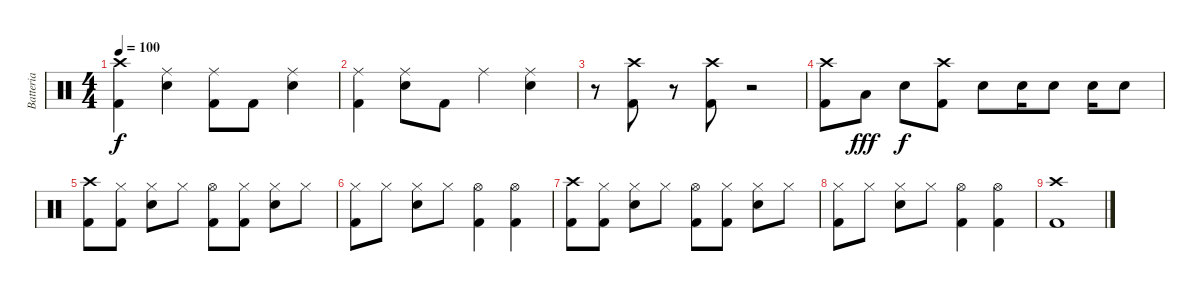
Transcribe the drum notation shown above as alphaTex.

\track ("Batteria" "Batteria") {instrument percussion}
\staff {score}
\articulation defaults
\ts (4 4)
\tempo 100
\clef neutral
\ks c
("Crash high (hit)" "Kick (hit) 2").4{dy f} ("Ride (middle)" "Electric Snare (hit)").4 ("Ride (middle)" "Kick (hit) 2").8 "Kick (hit) 2".8 ("Ride (middle)" "Electric Snare (hit)").4 |
("Ride (middle)" "Kick (hit) 2").4 ("Ride (middle)" "Electric Snare (hit)").8 "Kick (hit) 2".8 "Ride (middle)".4 ("Ride (middle)" "Electric Snare (hit)").4 |
r.8 ("Crash high (hit)" "Kick (hit) 2").8 r.8 ("Crash high (hit)" "Kick (hit) 2").8 r.2 |
("Crash high (hit)" "Kick (hit) 2").8 "Low Tom (hit)".8{dy fff} "Electric Snare (hit)".8{dy f} ("Crash high (hit)" "Kick (hit) 2").8 "Electric Snare (hit)".8 "Electric Snare (hit)".16 "Electric Snare (hit)".8 "Electric Snare (hit)".16 "Electric Snare (hit)".8 |
("Crash high (hit)" "Kick (hit) 2").8 ("Hi-Hat (closed)" "Kick (hit) 2").8 ("Hi-Hat (closed)" "Electric Snare (hit)").8 "Hi-Hat (closed)".8 ("Hi-Hat (open)" "Kick (hit) 2").8 ("Hi-Hat (closed)" "Kick (hit) 2").8 ("Hi-Hat (closed)" "Electric Snare (hit)").8 "Hi-Hat (closed)".8 |
("Hi-Hat (closed)" "Kick (hit) 2").8 "Hi-Hat (closed)".8 ("Hi-Hat (closed)" "Electric Snare (hit)").8 "Hi-Hat (closed)".8 ("Hi-Hat (open)" "Kick (hit) 2").4 ("Hi-Hat (open)" "Kick (hit) 2").4 |
("Crash high (hit)" "Kick (hit) 2").8 ("Hi-Hat (closed)" "Kick (hit) 2").8 ("Hi-Hat (closed)" "Electric Snare (hit)").8 "Hi-Hat (closed)".8 ("Hi-Hat (open)" "Kick (hit) 2").8 ("Hi-Hat (closed)" "Kick (hit) 2").8 ("Hi-Hat (closed)" "Electric Snare (hit)").8 "Hi-Hat (closed)".8 |
("Hi-Hat (closed)" "Kick (hit) 2").8{volume 0} "Hi-Hat (closed)".8 ("Hi-Hat (closed)" "Electric Snare (hit)").8 "Hi-Hat (closed)".8 ("Hi-Hat (open)" "Kick (hit) 2").4 ("Hi-Hat (open)" "Kick (hit) 2").4 |
("Crash high (hit)" "Kick (hit) 2").1
